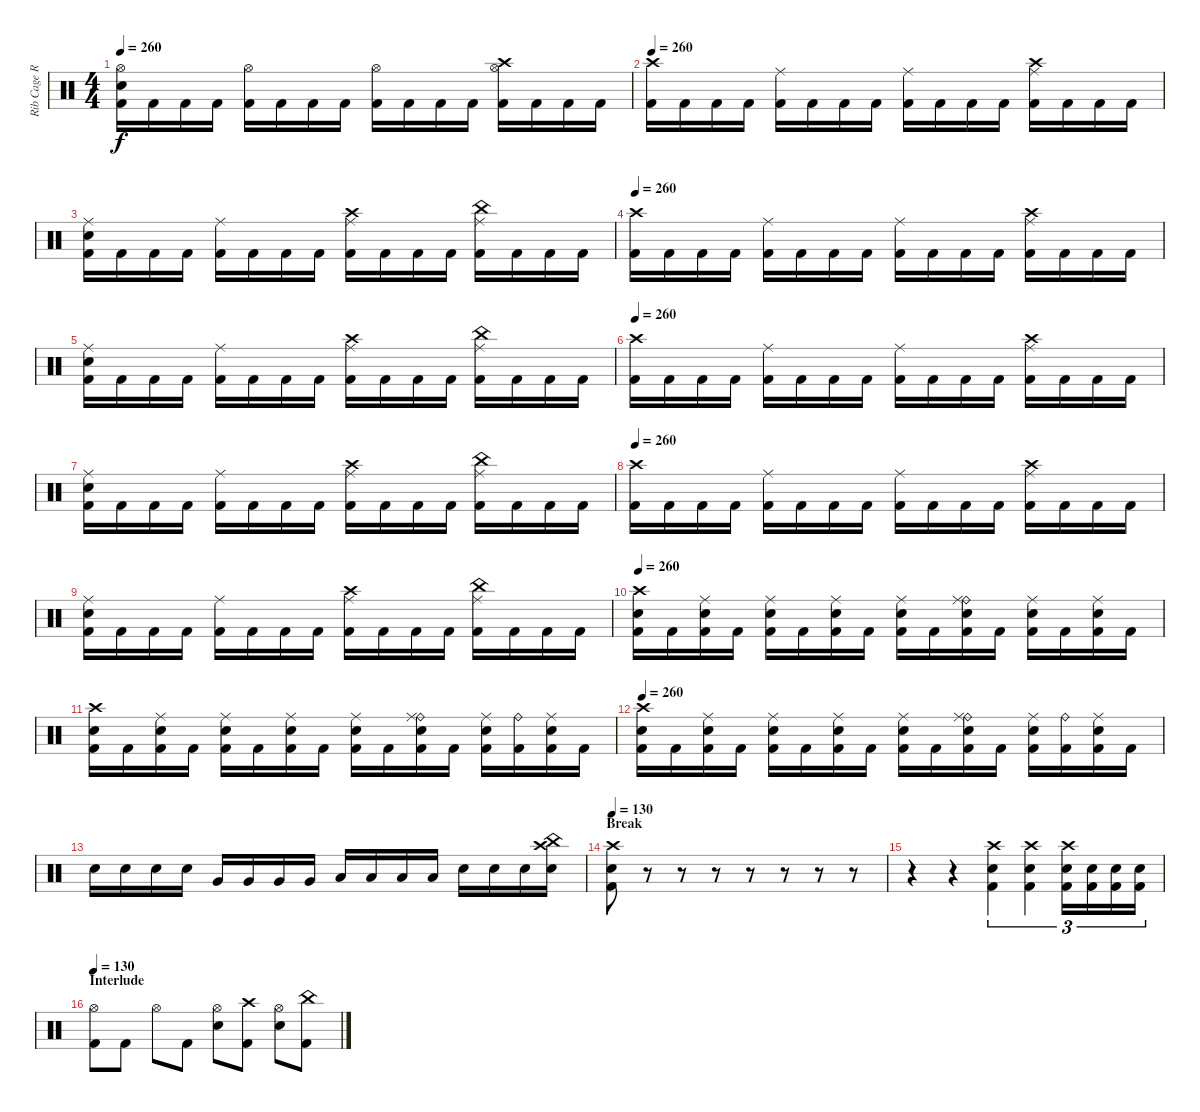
\track ("Rib Cage Rupturing God Stomping Cremator" "Rib Cage R") {instrument percussion}
\staff {score}
\articulation defaults
\ts (4 4)
\tempo 260
\clef neutral
\ks c
("Hi-Hat (open)" "Electric Snare (hit)" "Kick (hit) 2").16{dy f} "Kick (hit) 2".16 "Kick (hit) 2".16 "Kick (hit) 2".16 ("Hi-Hat (open)" "Kick (hit) 2").16 "Kick (hit) 2".16 "Kick (hit) 2".16 "Kick (hit) 2".16 ("Hi-Hat (open)" "Kick (hit) 2").16 "Kick (hit) 2".16 "Kick (hit) 2".16 "Kick (hit) 2".16 ("Crash high (hit)" "Hi-Hat (open)" "Kick (hit) 2").16 "Kick (hit) 2".16 "Kick (hit) 2".16 "Kick (hit) 2".16 |
\tempo 260
("Crash high (hit)" "Kick (hit) 2").16 "Kick (hit) 2".16 "Kick (hit) 2".16 "Kick (hit) 2".16 ("Ride (middle)" "Kick (hit) 2").16 "Kick (hit) 2".16 "Kick (hit) 2".16 "Kick (hit) 2".16 ("Ride (middle)" "Kick (hit) 2").16 "Kick (hit) 2".16 "Kick (hit) 2".16 "Kick (hit) 2".16 ("Crash high (hit)" "Ride (middle)" "Kick (hit) 2").16 "Kick (hit) 2".16 "Kick (hit) 2".16 "Kick (hit) 2".16 |
("Ride (middle)" "Electric Snare (hit)" "Kick (hit) 2").16 "Kick (hit) 2".16 "Kick (hit) 2".16 "Kick (hit) 2".16 ("Ride (middle)" "Kick (hit) 2").16 "Kick (hit) 2".16 "Kick (hit) 2".16 "Kick (hit) 2".16 ("Crash high (hit)" "Ride (middle)" "Kick (hit) 2").16 "Kick (hit) 2".16 "Kick (hit) 2".16 "Kick (hit) 2".16 ("China (hit)" "Ride (middle)" "Kick (hit) 2").16 "Kick (hit) 2".16 "Kick (hit) 2".16 "Kick (hit) 2".16 |
\tempo 260
("Crash high (hit)" "Kick (hit) 2").16 "Kick (hit) 2".16 "Kick (hit) 2".16 "Kick (hit) 2".16 ("Ride (middle)" "Kick (hit) 2").16 "Kick (hit) 2".16 "Kick (hit) 2".16 "Kick (hit) 2".16 ("Ride (middle)" "Kick (hit) 2").16 "Kick (hit) 2".16 "Kick (hit) 2".16 "Kick (hit) 2".16 ("Crash high (hit)" "Ride (middle)" "Kick (hit) 2").16 "Kick (hit) 2".16 "Kick (hit) 2".16 "Kick (hit) 2".16 |
("Ride (middle)" "Electric Snare (hit)" "Kick (hit) 2").16 "Kick (hit) 2".16 "Kick (hit) 2".16 "Kick (hit) 2".16 ("Ride (middle)" "Kick (hit) 2").16 "Kick (hit) 2".16 "Kick (hit) 2".16 "Kick (hit) 2".16 ("Crash high (hit)" "Ride (middle)" "Kick (hit) 2").16 "Kick (hit) 2".16 "Kick (hit) 2".16 "Kick (hit) 2".16 ("China (hit)" "Ride (middle)" "Kick (hit) 2").16 "Kick (hit) 2".16 "Kick (hit) 2".16 "Kick (hit) 2".16 |
\tempo 260
("Crash high (hit)" "Kick (hit) 2").16 "Kick (hit) 2".16 "Kick (hit) 2".16 "Kick (hit) 2".16 ("Ride (middle)" "Kick (hit) 2").16 "Kick (hit) 2".16 "Kick (hit) 2".16 "Kick (hit) 2".16 ("Ride (middle)" "Kick (hit) 2").16 "Kick (hit) 2".16 "Kick (hit) 2".16 "Kick (hit) 2".16 ("Crash high (hit)" "Ride (middle)" "Kick (hit) 2").16 "Kick (hit) 2".16 "Kick (hit) 2".16 "Kick (hit) 2".16 |
("Ride (middle)" "Electric Snare (hit)" "Kick (hit) 2").16 "Kick (hit) 2".16 "Kick (hit) 2".16 "Kick (hit) 2".16 ("Ride (middle)" "Kick (hit) 2").16 "Kick (hit) 2".16 "Kick (hit) 2".16 "Kick (hit) 2".16 ("Crash high (hit)" "Ride (middle)" "Kick (hit) 2").16 "Kick (hit) 2".16 "Kick (hit) 2".16 "Kick (hit) 2".16 ("China (hit)" "Ride (middle)" "Kick (hit) 2").16 "Kick (hit) 2".16 "Kick (hit) 2".16 "Kick (hit) 2".16 |
\tempo 260
("Crash high (hit)" "Kick (hit) 2").16 "Kick (hit) 2".16 "Kick (hit) 2".16 "Kick (hit) 2".16 ("Ride (middle)" "Kick (hit) 2").16 "Kick (hit) 2".16 "Kick (hit) 2".16 "Kick (hit) 2".16 ("Ride (middle)" "Kick (hit) 2").16 "Kick (hit) 2".16 "Kick (hit) 2".16 "Kick (hit) 2".16 ("Crash high (hit)" "Ride (middle)" "Kick (hit) 2").16 "Kick (hit) 2".16 "Kick (hit) 2".16 "Kick (hit) 2".16 |
("Ride (middle)" "Electric Snare (hit)" "Kick (hit) 2").16 "Kick (hit) 2".16 "Kick (hit) 2".16 "Kick (hit) 2".16 ("Ride (middle)" "Kick (hit) 2").16 "Kick (hit) 2".16 "Kick (hit) 2".16 "Kick (hit) 2".16 ("Crash high (hit)" "Ride (middle)" "Kick (hit) 2").16 "Kick (hit) 2".16 "Kick (hit) 2".16 "Kick (hit) 2".16 ("China (hit)" "Ride (middle)" "Kick (hit) 2").16 "Kick (hit) 2".16 "Kick (hit) 2".16 "Kick (hit) 2".16 |
\tempo 260
("Crash high (hit)" "Electric Snare (hit)" "Kick (hit) 2").16 "Kick (hit) 2".16 ("Ride (middle)" "Electric Snare (hit)" "Kick (hit) 2").16 "Kick (hit) 2".16 ("Ride (middle)" "Electric Snare (hit)" "Kick (hit) 2").16 "Kick (hit) 2".16 ("Ride (middle)" "Electric Snare (hit)" "Kick (hit) 2").16 "Kick (hit) 2".16 ("Ride (middle)" "Electric Snare (hit)" "Kick (hit) 2").16 "Kick (hit) 2".16 ("Ride (bell)" "Ride (middle)" "Electric Snare (hit)" "Kick (hit) 2").16 "Kick (hit) 2".16 ("Ride (middle)" "Electric Snare (hit)" "Kick (hit) 2").16 "Kick (hit) 2".16 ("Ride (middle)" "Electric Snare (hit)" "Kick (hit) 2").16 "Kick (hit) 2".16 |
("Crash high (hit)" "Electric Snare (hit)" "Kick (hit) 2").16 "Kick (hit) 2".16 ("Ride (middle)" "Electric Snare (hit)" "Kick (hit) 2").16 "Kick (hit) 2".16 ("Ride (middle)" "Electric Snare (hit)" "Kick (hit) 2").16 "Kick (hit) 2".16 ("Ride (middle)" "Electric Snare (hit)" "Kick (hit) 2").16 "Kick (hit) 2".16 ("Ride (middle)" "Electric Snare (hit)" "Kick (hit) 2").16 "Kick (hit) 2".16 ("Ride (bell)" "Ride (middle)" "Electric Snare (hit)" "Kick (hit) 2").16 "Kick (hit) 2".16 ("Ride (middle)" "Electric Snare (hit)" "Kick (hit) 2").16 ("Ride (bell)" "Kick (hit) 2").16 ("Ride (middle)" "Electric Snare (hit)" "Kick (hit) 2").16 "Kick (hit) 2".16 |
\tempo 260
("Crash high (hit)" "Electric Snare (hit)" "Kick (hit) 2").16 "Kick (hit) 2".16 ("Ride (middle)" "Electric Snare (hit)" "Kick (hit) 2").16 "Kick (hit) 2".16 ("Ride (middle)" "Electric Snare (hit)" "Kick (hit) 2").16 "Kick (hit) 2".16 ("Ride (middle)" "Electric Snare (hit)" "Kick (hit) 2").16 "Kick (hit) 2".16 ("Ride (middle)" "Electric Snare (hit)" "Kick (hit) 2").16 "Kick (hit) 2".16 ("Ride (bell)" "Ride (middle)" "Electric Snare (hit)" "Kick (hit) 2").16 "Kick (hit) 2".16 ("Ride (middle)" "Electric Snare (hit)" "Kick (hit) 2").16 ("Ride (bell)" "Kick (hit) 2").16 ("Ride (middle)" "Electric Snare (hit)" "Kick (hit) 2").16 "Kick (hit) 2".16 |
"Electric Snare (hit)".16 "Electric Snare (hit)".16 "Electric Snare (hit)".16 "Electric Snare (hit)".16 "Very Low Tom (hit)".16 "Very Low Tom (hit)".16 "Very Low Tom (hit)".16 "Very Low Tom (hit)".16 "Low Floor Tom (hit)".16 "Low Floor Tom (hit)".16 "Low Floor Tom (hit)".16 "Low Floor Tom (hit)".16 "Electric Snare (hit)".16 "Electric Snare (hit)".16 "Electric Snare (hit)".16 ("China (hit)" "Crash high (hit)" "Electric Snare (hit)").16 |
\section ("" "Break")
\tempo 130
("Crash high (hit)" "Electric Snare (hit)" "Kick (hit) 2").8 r.8 r.8 r.8 r.8 r.8 r.8 r.8 |
r.4 r.4 ("Crash high (hit)" "Electric Snare (hit)" "Kick (hit) 2").4{tu (3 2)} ("Crash high (hit)" "Electric Snare (hit)" "Kick (hit) 2").4{tu (3 2)} ("Crash high (hit)" "Electric Snare (hit)" "Kick (hit) 2").16{tu (3 2)} ("Electric Snare (hit)" "Kick (hit) 2").16{tu (3 2)} ("Electric Snare (hit)" "Kick (hit) 2").16{tu (3 2)} ("Electric Snare (hit)" "Kick (hit) 2").16{tu (3 2)} |
\section ("" "Interlude")
\tempo 130
("Hi-Hat (open)" "Kick (hit) 2").8 "Kick (hit) 2".8 "Hi-Hat (open)".8 "Kick (hit) 2".8 ("Hi-Hat (open)" "Electric Snare (hit)").8 ("Crash high (hit)" "Kick (hit) 2").8 ("Hi-Hat (open)" "Electric Snare (hit)").8 ("China (hit)" "Kick (hit) 2").8
